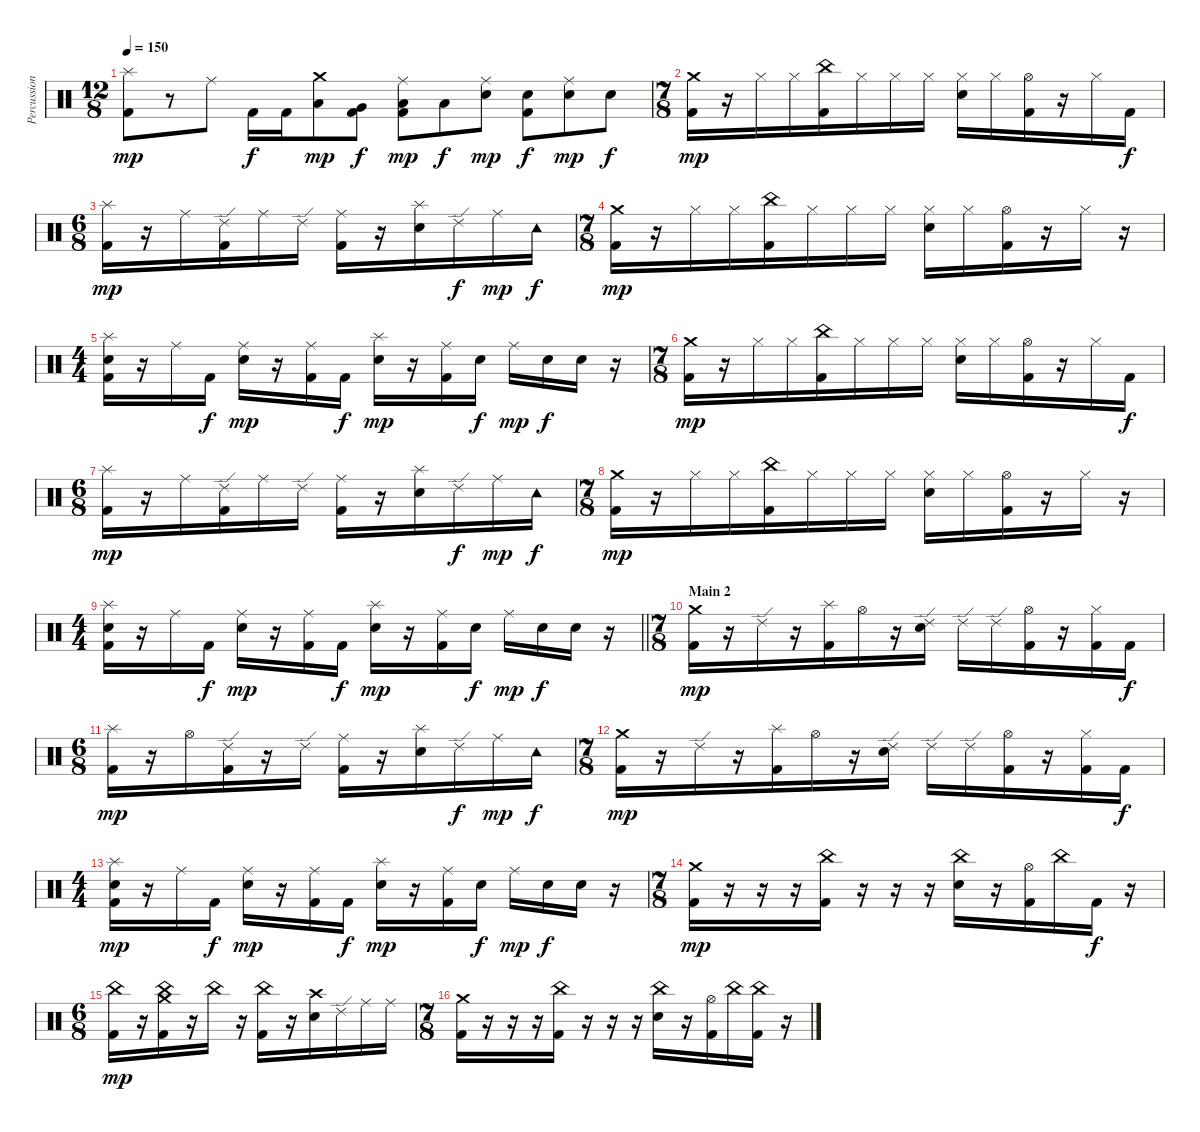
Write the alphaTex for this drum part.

\track ("Percussion" "Percussion") {instrument percussion}
\staff {score}
\articulation defaults
\ts (12 8)
\tempo 150
\clef neutral
\ks c
("Splash (hit)" "Kick (hit) 2").8{dy mp} r.8 "Ride (middle)".8 "Kick (hit) 2".16{dy f} "Kick (hit) 2".16 ("Crash medium (hit)" "Low Tom (hit)").8{dy mp} ("Very Low Tom (hit)" "Kick (hit) 2").8{dy f} ("Ride (middle)" "Low Floor Tom (hit)" "Kick (hit) 2").8{dy mp} "Low Floor Tom (hit)".8{dy f} ("Ride (middle)" "Electric Snare (hit)").8{dy mp} ("Electric Snare (hit)" "Kick (hit) 2").8{dy f} ("Ride (middle)" "Electric Snare (hit)").8{dy mp} "Electric Snare (hit)".8{dy f} |
\ts (7 8)
("Crash medium (hit)" "Kick (hit) 2").16{dy mp} r.16 "Hi-Hat (closed)".16 "Hi-Hat (closed)".16 ("China (hit)" "Kick (hit) 2").16 "Hi-Hat (closed)".16 "Hi-Hat (closed)".16 "Hi-Hat (closed)".16 ("Hi-Hat (closed)" "Electric Snare (hit)").16 "Hi-Hat (closed)".16 ("Hi-Hat (open)" "Kick (hit) 2").16 r.16 "Hi-Hat (closed)".16 "Kick (hit) 2".16{dy f} |
\ts (6 8)
("Splash (hit)" "Kick (hit) 2").16{dy mp} r.16 "Ride (middle)".16 ("Ride (edge) 2" "Kick (hit) 2").16 "Ride (middle)".16 "Ride (edge) 2".16 ("Ride (middle)" "Kick (hit) 2").16 r.16 ("Splash (hit)" "Electric Snare (hit)").16 "Ride (edge) 2".16{dy f} "Ride (middle)".16{dy mp} "Tambourine (hit)".16{dy f} |
\ts (7 8)
("Crash medium (hit)" "Kick (hit) 2").16{dy mp} r.16 "Hi-Hat (closed)".16 "Hi-Hat (closed)".16 ("China (hit)" "Kick (hit) 2").16 "Hi-Hat (closed)".16 "Hi-Hat (closed)".16 "Hi-Hat (closed)".16 ("Hi-Hat (closed)" "Electric Snare (hit)").16 "Hi-Hat (closed)".16 ("Hi-Hat (open)" "Kick (hit) 2").16 r.16 "Hi-Hat (closed)".16 r.16 |
\ts (4 4)
("Splash (hit)" "Electric Snare (hit)" "Kick (hit) 2").16 r.16 "Ride (middle)".16 "Kick (hit) 2".16{dy f} ("Ride (middle)" "Electric Snare (hit)").16{dy mp} r.16 ("Ride (middle)" "Kick (hit) 2").16 "Kick (hit) 2".16{dy f} ("Splash (hit)" "Electric Snare (hit)").16{dy mp} r.16 ("Ride (middle)" "Kick (hit) 2").16 "Electric Snare (hit)".16{dy f} "Ride (middle)".16{dy mp} "Electric Snare (hit)".16{dy f} "Electric Snare (hit)".16 r.16 |
\ts (7 8)
("Crash medium (hit)" "Kick (hit) 2").16{dy mp} r.16 "Hi-Hat (closed)".16 "Hi-Hat (closed)".16 ("China (hit)" "Kick (hit) 2").16 "Hi-Hat (closed)".16 "Hi-Hat (closed)".16 "Hi-Hat (closed)".16 ("Hi-Hat (closed)" "Electric Snare (hit)").16 "Hi-Hat (closed)".16 ("Hi-Hat (open)" "Kick (hit) 2").16 r.16 "Hi-Hat (closed)".16 "Kick (hit) 2".16{dy f} |
\ts (6 8)
("Splash (hit)" "Kick (hit) 2").16{dy mp} r.16 "Ride (middle)".16 ("Ride (edge) 2" "Kick (hit) 2").16 "Ride (middle)".16 "Ride (edge) 2".16 ("Ride (middle)" "Kick (hit) 2").16 r.16 ("Splash (hit)" "Electric Snare (hit)").16 "Ride (edge) 2".16{dy f} "Ride (middle)".16{dy mp} "Tambourine (hit)".16{dy f} |
\ts (7 8)
("Crash medium (hit)" "Kick (hit) 2").16{dy mp} r.16 "Hi-Hat (closed)".16 "Hi-Hat (closed)".16 ("China (hit)" "Kick (hit) 2").16 "Hi-Hat (closed)".16 "Hi-Hat (closed)".16 "Hi-Hat (closed)".16 ("Hi-Hat (closed)" "Electric Snare (hit)").16 "Hi-Hat (closed)".16 ("Hi-Hat (open)" "Kick (hit) 2").16 r.16 "Hi-Hat (closed)".16 r.16 |
\ts (4 4)
\barLineRight lightlight
("Splash (hit)" "Electric Snare (hit)" "Kick (hit) 2").16 r.16 "Ride (middle)".16 "Kick (hit) 2".16{dy f} ("Ride (middle)" "Electric Snare (hit)").16{dy mp} r.16 ("Ride (middle)" "Kick (hit) 2").16 "Kick (hit) 2".16{dy f} ("Splash (hit)" "Electric Snare (hit)").16{dy mp} r.16 ("Ride (middle)" "Kick (hit) 2").16 "Electric Snare (hit)".16{dy f} "Ride (middle)".16{dy mp} "Electric Snare (hit)".16{dy f} "Electric Snare (hit)".16 r.16 |
\ts (7 8)
\section ("" "Main 2")
("Crash medium (hit)" "Kick (hit) 2").16{dy mp} r.16 "Ride (edge) 2".16 r.16 ("Splash (hit)" "Kick (hit) 2").16 "Hi-Hat (open)".16 r.16 ("Ride (edge) 2" "Electric Snare (hit)").16 "Ride (edge) 2".16 "Ride (edge) 2".16 ("Hi-Hat (open)" "Kick (hit) 2").16 r.16 ("Hi-Hat (closed)" "Kick (hit) 2").16 "Kick (hit) 2".16{dy f} |
\ts (6 8)
("Splash (hit)" "Kick (hit) 2").16{dy mp} r.16 "Hi-Hat (open)".16 ("Ride (edge) 2" "Kick (hit) 2").16 r.16 "Ride (edge) 2".16 ("Ride (middle)" "Kick (hit) 2").16 r.16 ("Splash (hit)" "Electric Snare (hit)").16 "Ride (edge) 2".16{dy f} "Ride (middle)".16{dy mp} "Tambourine (hit)".16{dy f} |
\ts (7 8)
("Crash medium (hit)" "Kick (hit) 2").16{dy mp} r.16 "Ride (edge) 2".16 r.16 ("Splash (hit)" "Kick (hit) 2").16 "Hi-Hat (open)".16 r.16 ("Ride (edge) 2" "Electric Snare (hit)").16 "Ride (edge) 2".16 "Ride (edge) 2".16 ("Hi-Hat (open)" "Kick (hit) 2").16 r.16 ("Hi-Hat (closed)" "Kick (hit) 2").16 "Kick (hit) 2".16{dy f} |
\ts (4 4)
("Splash (hit)" "Electric Snare (hit)" "Kick (hit) 2").16{dy mp} r.16 "Ride (middle)".16 "Kick (hit) 2".16{dy f} ("Ride (middle)" "Electric Snare (hit)").16{dy mp} r.16 ("Ride (middle)" "Kick (hit) 2").16 "Kick (hit) 2".16{dy f} ("Splash (hit)" "Electric Snare (hit)").16{dy mp} r.16 ("Ride (middle)" "Kick (hit) 2").16 "Electric Snare (hit)".16{dy f} "Ride (middle)".16{dy mp} "Electric Snare (hit)".16{dy f} "Electric Snare (hit)".16 r.16 |
\ts (7 8)
("Crash medium (hit)" "Kick (hit) 2").16{dy mp} r.16 r.16 r.16 ("China (hit)" "Kick (hit) 2").16 r.16 r.16 r.16 ("China (hit)" "Electric Snare (hit)").16 r.16 ("Hi-Hat (open)" "Kick (hit) 2").16 "China (hit)".16 "Kick (hit) 2".16{dy f} r.16 |
\ts (6 8)
("China (hit)" "Kick (hit) 2").16{dy mp} r.16 ("China (hit)" "Crash medium (hit)" "Kick (hit) 2").16 r.16 "China (hit)".16 r.16 ("China (hit)" "Kick (hit) 2").16 r.16 ("Crash high (hit)" "Electric Snare (hit)").16 "Ride (edge) 2".16 "Ride (middle)".16 "Ride (middle)".16 |
\ts (7 8)
("Crash medium (hit)" "Kick (hit) 2").16 r.16 r.16 r.16 ("China (hit)" "Kick (hit) 2").16 r.16 r.16 r.16 ("China (hit)" "Electric Snare (hit)").16 r.16 ("Hi-Hat (open)" "Kick (hit) 2").16 "China (hit)".16 ("China (hit)" "Kick (hit) 2").16 r.16
